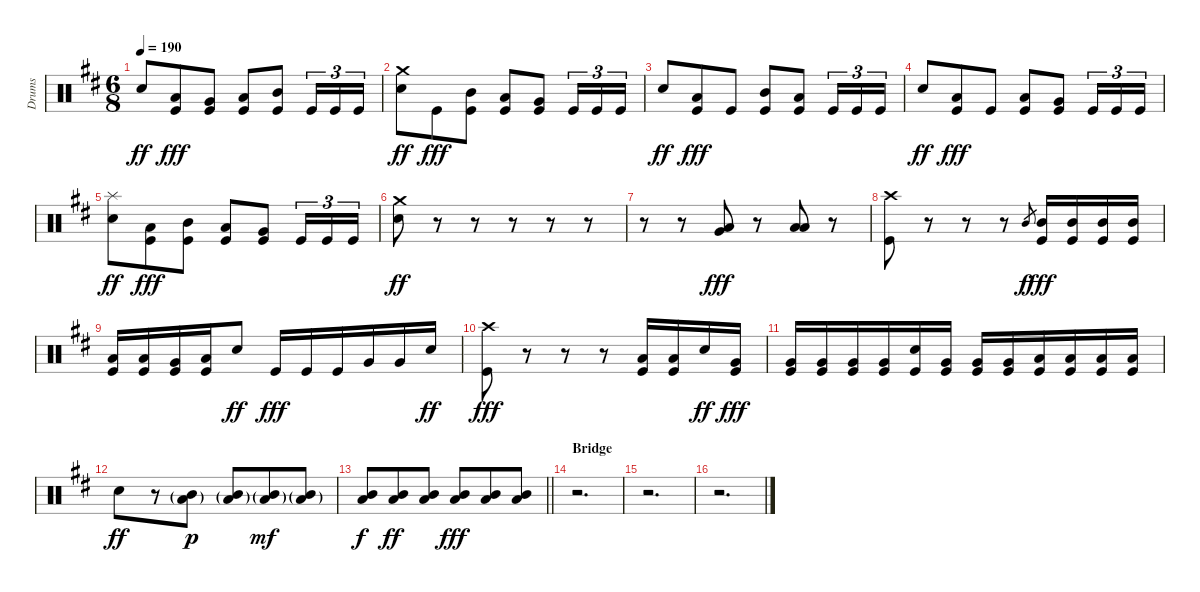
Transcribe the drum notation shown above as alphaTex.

\track ("Drums" "Drums") {instrument percussion}
\staff {score}
\articulation defaults
\ts (6 8)
\tempo 190
\clef neutral
\ks bminor "Snare (hit) 2".8{dy ff}
("Low Floor Tom (hit)" "Kick (hit)").8{dy fff} ("Very Low Tom (hit)" "Kick (hit)").8 ("Low Tom (hit)" "Kick (hit)").8 ("Mid Tom (hit)" "Kick (hit)").8 "Kick (hit)".16{tu (3 2)} "Kick (hit)".16{tu (3 2)} "Kick (hit)".16{tu (3 2)} |
("Crash medium (hit)" "Snare (hit) 2").8{dy ff} "Kick (hit)".8{dy fff} ("Mid Tom (hit)" "Kick (hit)").8 ("Low Tom (hit)" "Kick (hit)").8 ("Very Low Tom (hit)" "Kick (hit)").8 "Kick (hit)".16{tu (3 2)} "Kick (hit)".16{tu (3 2)} "Kick (hit)".16{tu (3 2)} |
"Snare (hit) 2".8{dy ff} ("Low Floor Tom (hit)" "Kick (hit)").8{dy fff} "Kick (hit)".8 ("Mid Tom (hit)" "Kick (hit)").8 ("Low Tom (hit)" "Kick (hit)").8 "Kick (hit)".16{tu (3 2)} "Kick (hit)".16{tu (3 2)} "Kick (hit)".16{tu (3 2)} |
"Snare (hit) 2".8{dy ff} ("Low Floor Tom (hit)" "Kick (hit)").8{dy fff} "Kick (hit)".8 ("Low Tom (hit)" "Kick (hit)").8 ("Very Low Tom (hit)" "Kick (hit)").8 "Kick (hit)".16{tu (3 2)} "Kick (hit)".16{tu (3 2)} "Kick (hit)".16{tu (3 2)} |
("Splash (hit)" "Snare (hit) 2").8{dy ff} ("Low Floor Tom (hit)" "Kick (hit)").8{dy fff} ("Mid Tom (hit)" "Kick (hit)").8 ("Low Tom (hit)" "Kick (hit)").8 ("Very Low Tom (hit)" "Kick (hit)").8 "Kick (hit)".16{tu (3 2)} "Kick (hit)".16{tu (3 2)} "Kick (hit)".16{tu (3 2)} |
("Crash medium (hit)" "Snare (hit) 2").8{dy ff} r.8 r.8 r.8 r.8 r.8 |
r.8 r.8 ("Very Low Tom (hit)" "Low Floor Tom (hit)").8{dy fff} r.8 ("Low Tom (hit)" "Low Floor Tom (hit)").8 r.8 |
("Crash high (hit)" "Kick (hit)").8 r.8 r.8 r.8 "Mid Tom (hit)".8{gr dy f} ("Mid Tom (hit)" "Kick (hit)").16{dy fff} ("Mid Tom (hit)" "Kick (hit)").16 ("Mid Tom (hit)" "Kick (hit)").16 ("Mid Tom (hit)" "Kick (hit)").16 |
("Low Tom (hit)" "Kick (hit)").16 ("Low Tom (hit)" "Kick (hit)").16 ("Very Low Tom (hit)" "Kick (hit)").16 ("Low Floor Tom (hit)" "Kick (hit)").16 "Snare (hit) 2".8{dy ff} "Kick (hit)".16{dy fff} "Kick (hit)".16 "Kick (hit)".16 "Very Low Tom (hit)".16 "Very Low Tom (hit)".16 "Snare (hit) 2".16{dy ff} |
("Crash high (hit)" "Kick (hit)").8{dy fff} r.8 r.8 r.8 ("Low Tom (hit)" "Kick (hit)").16 ("Low Tom (hit)" "Kick (hit)").16 "Snare (hit) 2".16{dy ff} ("Very Low Tom (hit)" "Kick (hit)").16{dy fff} |
("Very Low Tom (hit)" "Kick (hit)").16 ("Very Low Tom (hit)" "Kick (hit)").16 ("Very Low Tom (hit)" "Kick (hit)").16 ("Very Low Tom (hit)" "Kick (hit)").16 ("Snare (hit) 2" "Kick (hit)").16 ("Very Low Tom (hit)" "Kick (hit)").16 ("Very Low Tom (hit)" "Kick (hit)").16 ("Very Low Tom (hit)" "Kick (hit)").16 ("Low Floor Tom (hit)" "Kick (hit)").16 ("Low Floor Tom (hit)" "Kick (hit)").16 ("Low Floor Tom (hit)" "Kick (hit)").16 ("Low Floor Tom (hit)" "Kick (hit)").16 |
"Snare (hit) 2".8{dy ff} r.8 ("Mid Tom (hit)"{g} "Low Floor Tom (hit)"{g}).8{dy p} ("Mid Tom (hit)"{g} "Low Floor Tom (hit)"{g}).8 ("Mid Tom (hit)"{g} "Low Floor Tom (hit)"{g}).8{dy mf} ("Mid Tom (hit)"{g} "Low Floor Tom (hit)"{g}).8 |
\barLineRight lightlight
("Mid Tom (hit)" "Low Floor Tom (hit)").8{dy f} ("Mid Tom (hit)" "Low Floor Tom (hit)").8{dy ff} ("Mid Tom (hit)" "Low Floor Tom (hit)").8 ("Mid Tom (hit)" "Low Floor Tom (hit)").8{dy fff} ("Mid Tom (hit)" "Low Floor Tom (hit)").8 ("Mid Tom (hit)" "Low Floor Tom (hit)").8 |
\section ("" "Bridge")
r.2{d} |
r.2{d} |
r.2{d}
